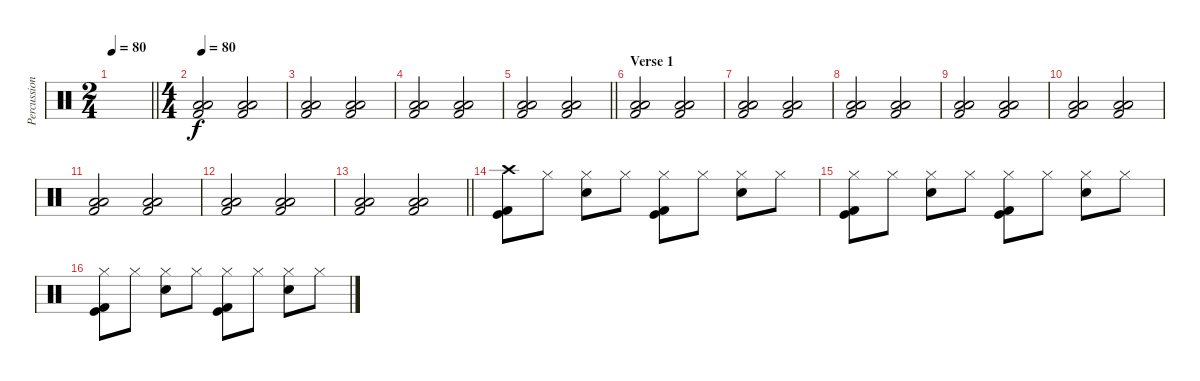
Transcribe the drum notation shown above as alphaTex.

\track ("Percussion" "Percussion") {instrument percussion}
\staff {score}
\articulation defaults
\ts (2 4)
\tempo 80
\clef neutral
\barLineRight lightlight
\ks c
|
\ts (4 4)
\section ("" "")
\tempo 80
("Low Tom (hit)" "Low Floor Tom (hit)" "Kick (hit) 2").2 ("Low Tom (hit)" "Low Floor Tom (hit)" "Kick (hit) 2").2 |
("Low Tom (hit)" "Low Floor Tom (hit)" "Kick (hit) 2").2 ("Low Tom (hit)" "Low Floor Tom (hit)" "Kick (hit) 2").2 |
("Low Tom (hit)" "Low Floor Tom (hit)" "Kick (hit) 2").2 ("Low Tom (hit)" "Low Floor Tom (hit)" "Kick (hit) 2").2 |
\barLineRight lightlight
("Low Tom (hit)" "Low Floor Tom (hit)" "Kick (hit) 2").2 ("Low Tom (hit)" "Low Floor Tom (hit)" "Kick (hit) 2").2 |
\section ("" "Verse 1")
("Low Tom (hit)" "Low Floor Tom (hit)" "Kick (hit) 2").2 ("Low Tom (hit)" "Low Floor Tom (hit)" "Kick (hit) 2").2 |
("Low Tom (hit)" "Low Floor Tom (hit)" "Kick (hit) 2").2 ("Low Tom (hit)" "Low Floor Tom (hit)" "Kick (hit) 2").2 |
("Low Tom (hit)" "Low Floor Tom (hit)" "Kick (hit) 2").2 ("Low Tom (hit)" "Low Floor Tom (hit)" "Kick (hit) 2").2 |
("Low Tom (hit)" "Low Floor Tom (hit)" "Kick (hit) 2").2 ("Low Tom (hit)" "Low Floor Tom (hit)" "Kick (hit) 2").2 |
("Low Tom (hit)" "Low Floor Tom (hit)" "Kick (hit) 2").2 ("Low Tom (hit)" "Low Floor Tom (hit)" "Kick (hit) 2").2 |
("Low Tom (hit)" "Low Floor Tom (hit)" "Kick (hit) 2").2 ("Low Tom (hit)" "Low Floor Tom (hit)" "Kick (hit) 2").2 |
("Low Tom (hit)" "Low Floor Tom (hit)" "Kick (hit) 2").2 ("Low Tom (hit)" "Low Floor Tom (hit)" "Kick (hit) 2").2 |
\barLineRight lightlight
("Low Tom (hit)" "Low Floor Tom (hit)" "Kick (hit) 2").2 ("Low Tom (hit)" "Low Floor Tom (hit)" "Kick (hit) 2").2 |
\section ("" "")
("Crash high (hit)" "Kick (hit)" "Kick (hit) 2").8 "Hi-Hat (closed)".8 ("Hi-Hat (closed)" "Electric Snare (hit)").8 "Hi-Hat (closed)".8 ("Hi-Hat (closed)" "Kick (hit)" "Kick (hit) 2").8 "Hi-Hat (closed)".8 ("Hi-Hat (closed)" "Electric Snare (hit)").8 "Hi-Hat (closed)".8 |
("Hi-Hat (closed)" "Kick (hit)" "Kick (hit) 2").8 "Hi-Hat (closed)".8 ("Hi-Hat (closed)" "Electric Snare (hit)").8 "Hi-Hat (closed)".8 ("Hi-Hat (closed)" "Kick (hit)" "Kick (hit) 2").8 "Hi-Hat (closed)".8 ("Hi-Hat (closed)" "Electric Snare (hit)").8 "Hi-Hat (closed)".8 |
("Hi-Hat (closed)" "Kick (hit)" "Kick (hit) 2").8 "Hi-Hat (closed)".8 ("Hi-Hat (closed)" "Electric Snare (hit)").8 "Hi-Hat (closed)".8 ("Hi-Hat (closed)" "Kick (hit)" "Kick (hit) 2").8 "Hi-Hat (closed)".8 ("Hi-Hat (closed)" "Electric Snare (hit)").8 "Hi-Hat (closed)".8
